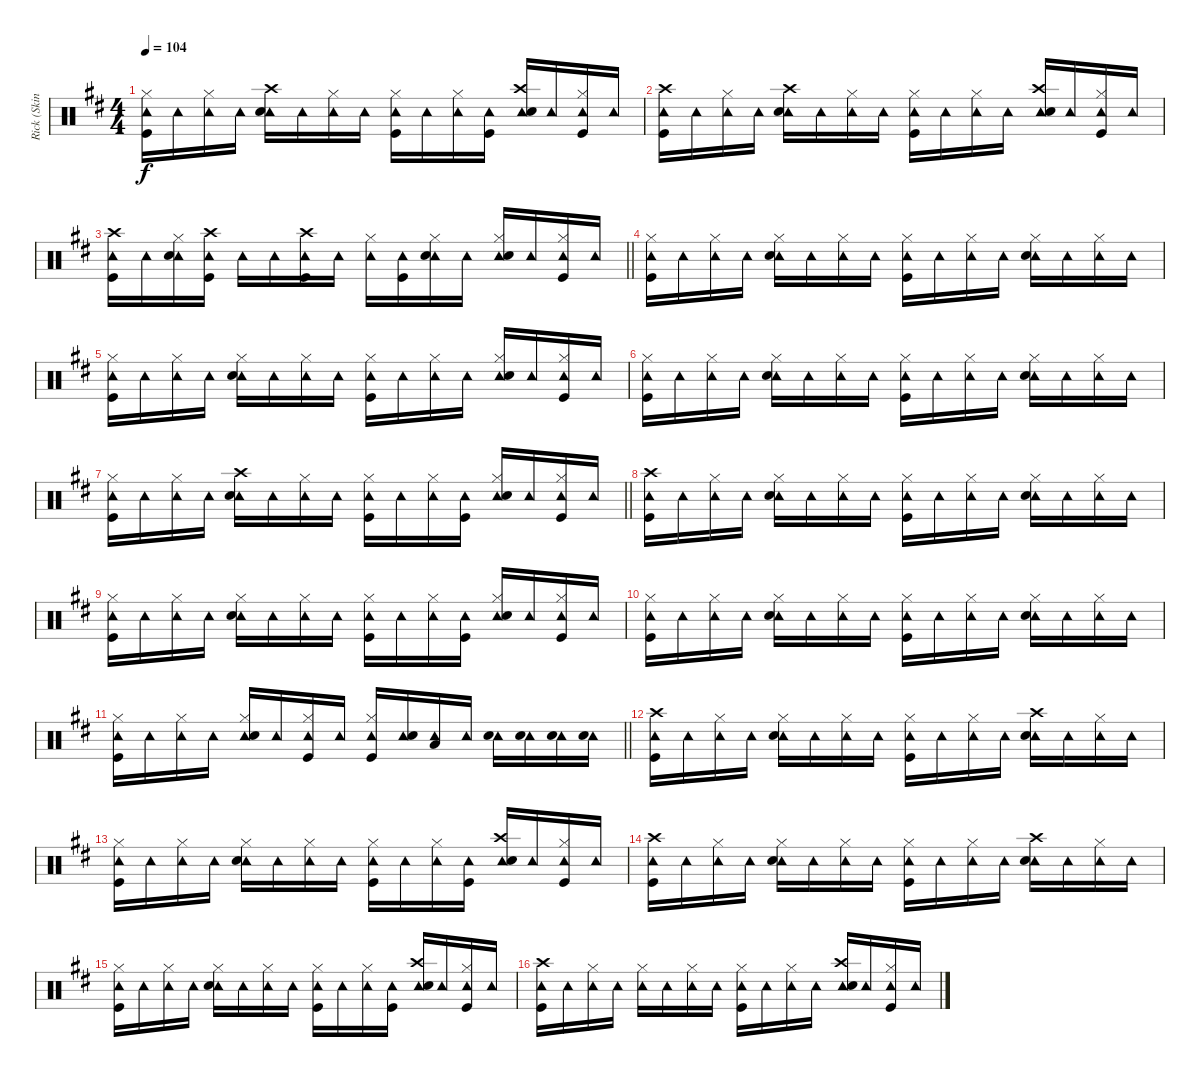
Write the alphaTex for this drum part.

\track ("Rick (Skins)" "Rick (Skin") {instrument percussion}
\staff {score}
\articulation defaults
\ts (4 4)
\tempo 104
\clef neutral
\ks d
("Tambourine (hit)" "Hi-Hat (closed)" "Kick (hit)").16{dy f} "Tambourine (hit)".16 ("Tambourine (hit)" "Hi-Hat (closed)").16 "Tambourine (hit)".16 ("Tambourine (hit)" "Crash high (hit)" "Snare (hit) 2").16 "Tambourine (hit)".16 ("Tambourine (hit)" "Hi-Hat (closed)").16 "Tambourine (hit)".16 ("Tambourine (hit)" "Hi-Hat (closed)" "Kick (hit)").16 "Tambourine (hit)".16 ("Tambourine (hit)" "Hi-Hat (closed)").16 ("Tambourine (hit)" "Kick (hit)").16 ("Tambourine (hit)" "Crash high (hit)" "Snare (hit) 2").16 "Tambourine (hit)".16 ("Tambourine (hit)" "Hi-Hat (closed)" "Kick (hit)").16 "Tambourine (hit)".16 |
("Tambourine (hit)" "Crash high (hit)" "Kick (hit)").16 "Tambourine (hit)".16 ("Tambourine (hit)" "Hi-Hat (closed)").16 "Tambourine (hit)".16 ("Tambourine (hit)" "Crash high (hit)" "Snare (hit) 2").16 "Tambourine (hit)".16 ("Tambourine (hit)" "Hi-Hat (closed)").16 "Tambourine (hit)".16 ("Tambourine (hit)" "Hi-Hat (closed)" "Kick (hit)").16 "Tambourine (hit)".16 ("Tambourine (hit)" "Hi-Hat (closed)").16 "Tambourine (hit)".16 ("Tambourine (hit)" "Crash high (hit)" "Snare (hit) 2").16 "Tambourine (hit)".16 ("Tambourine (hit)" "Hi-Hat (closed)" "Kick (hit)").16 "Tambourine (hit)".16 |
\barLineRight lightlight
("Tambourine (hit)" "Crash high (hit)" "Kick (hit)").16 "Tambourine (hit)".16 ("Tambourine (hit)" "Hi-Hat (closed)" "Snare (hit) 2").16 ("Tambourine (hit)" "Crash high (hit)" "Kick (hit)").16 "Tambourine (hit)".16 "Tambourine (hit)".16 ("Tambourine (hit)" "Crash high (hit)" "Kick (hit)").16 "Tambourine (hit)".16 ("Tambourine (hit)" "Hi-Hat (closed)").16 ("Tambourine (hit)" "Kick (hit)").16 ("Tambourine (hit)" "Hi-Hat (closed)" "Snare (hit) 2").16 "Tambourine (hit)".16 ("Tambourine (hit)" "Hi-Hat (closed)" "Snare (hit) 2").16 "Tambourine (hit)".16 ("Tambourine (hit)" "Hi-Hat (closed)" "Kick (hit)").16 "Tambourine (hit)".16 |
("Tambourine (hit)" "Hi-Hat (closed)" "Kick (hit)").16 "Tambourine (hit)".16 ("Tambourine (hit)" "Hi-Hat (closed)").16 "Tambourine (hit)".16 ("Tambourine (hit)" "Hi-Hat (closed)" "Snare (hit) 2").16 "Tambourine (hit)".16 ("Tambourine (hit)" "Hi-Hat (closed)").16 "Tambourine (hit)".16 ("Tambourine (hit)" "Hi-Hat (closed)" "Kick (hit)").16 "Tambourine (hit)".16 ("Tambourine (hit)" "Hi-Hat (closed)").16 "Tambourine (hit)".16 ("Tambourine (hit)" "Hi-Hat (closed)" "Snare (hit) 2").16 "Tambourine (hit)".16 ("Tambourine (hit)" "Hi-Hat (closed)").16 "Tambourine (hit)".16 |
("Tambourine (hit)" "Hi-Hat (closed)" "Kick (hit)").16 "Tambourine (hit)".16 ("Tambourine (hit)" "Hi-Hat (closed)").16 "Tambourine (hit)".16 ("Tambourine (hit)" "Hi-Hat (closed)" "Snare (hit) 2").16 "Tambourine (hit)".16 ("Tambourine (hit)" "Hi-Hat (closed)").16 "Tambourine (hit)".16 ("Tambourine (hit)" "Hi-Hat (closed)" "Kick (hit)").16 "Tambourine (hit)".16 ("Tambourine (hit)" "Hi-Hat (closed)").16 "Tambourine (hit)".16 ("Tambourine (hit)" "Hi-Hat (closed)" "Snare (hit) 2").16 "Tambourine (hit)".16 ("Tambourine (hit)" "Hi-Hat (closed)" "Kick (hit)").16 "Tambourine (hit)".16 |
("Tambourine (hit)" "Hi-Hat (closed)" "Kick (hit)").16 "Tambourine (hit)".16 ("Tambourine (hit)" "Hi-Hat (closed)").16 "Tambourine (hit)".16 ("Tambourine (hit)" "Hi-Hat (closed)" "Snare (hit) 2").16 "Tambourine (hit)".16 ("Tambourine (hit)" "Hi-Hat (closed)").16 "Tambourine (hit)".16 ("Tambourine (hit)" "Hi-Hat (closed)" "Kick (hit)").16 "Tambourine (hit)".16 ("Tambourine (hit)" "Hi-Hat (closed)").16 "Tambourine (hit)".16 ("Tambourine (hit)" "Hi-Hat (closed)" "Snare (hit) 2").16 "Tambourine (hit)".16 ("Tambourine (hit)" "Hi-Hat (closed)").16 "Tambourine (hit)".16 |
\barLineRight lightlight
("Tambourine (hit)" "Hi-Hat (closed)" "Kick (hit)").16 "Tambourine (hit)".16 ("Tambourine (hit)" "Hi-Hat (closed)").16 "Tambourine (hit)".16 ("Tambourine (hit)" "Crash high (hit)" "Snare (hit) 2").16 "Tambourine (hit)".16 ("Tambourine (hit)" "Hi-Hat (closed)").16 "Tambourine (hit)".16 ("Tambourine (hit)" "Hi-Hat (closed)" "Kick (hit)").16 "Tambourine (hit)".16 ("Tambourine (hit)" "Hi-Hat (closed)").16 ("Tambourine (hit)" "Kick (hit)").16 ("Tambourine (hit)" "Hi-Hat (closed)" "Snare (hit) 2").16 "Tambourine (hit)".16 ("Tambourine (hit)" "Hi-Hat (closed)" "Kick (hit)").16 "Tambourine (hit)".16 |
("Tambourine (hit)" "Crash high (hit)" "Kick (hit)").16 "Tambourine (hit)".16 ("Tambourine (hit)" "Hi-Hat (closed)").16 "Tambourine (hit)".16 ("Tambourine (hit)" "Hi-Hat (closed)" "Snare (hit) 2").16 "Tambourine (hit)".16 ("Tambourine (hit)" "Hi-Hat (closed)").16 "Tambourine (hit)".16 ("Tambourine (hit)" "Hi-Hat (closed)" "Kick (hit)").16 "Tambourine (hit)".16 ("Tambourine (hit)" "Hi-Hat (closed)").16 "Tambourine (hit)".16 ("Tambourine (hit)" "Hi-Hat (closed)" "Snare (hit) 2").16 "Tambourine (hit)".16 ("Tambourine (hit)" "Hi-Hat (closed)").16 "Tambourine (hit)".16 |
("Tambourine (hit)" "Hi-Hat (closed)" "Kick (hit)").16 "Tambourine (hit)".16 ("Tambourine (hit)" "Hi-Hat (closed)").16 "Tambourine (hit)".16 ("Tambourine (hit)" "Hi-Hat (closed)" "Snare (hit) 2").16 "Tambourine (hit)".16 ("Tambourine (hit)" "Hi-Hat (closed)").16 "Tambourine (hit)".16 ("Tambourine (hit)" "Hi-Hat (closed)" "Kick (hit)").16 "Tambourine (hit)".16 ("Tambourine (hit)" "Hi-Hat (closed)").16 ("Tambourine (hit)" "Kick (hit)").16 ("Tambourine (hit)" "Hi-Hat (closed)" "Snare (hit) 2").16 "Tambourine (hit)".16 ("Tambourine (hit)" "Hi-Hat (closed)" "Kick (hit)").16 "Tambourine (hit)".16 |
("Tambourine (hit)" "Hi-Hat (closed)" "Kick (hit)").16 "Tambourine (hit)".16 ("Tambourine (hit)" "Hi-Hat (closed)").16 "Tambourine (hit)".16 ("Tambourine (hit)" "Hi-Hat (closed)" "Snare (hit) 2").16 "Tambourine (hit)".16 ("Tambourine (hit)" "Hi-Hat (closed)").16 "Tambourine (hit)".16 ("Tambourine (hit)" "Hi-Hat (closed)" "Kick (hit)").16 "Tambourine (hit)".16 ("Tambourine (hit)" "Hi-Hat (closed)").16 "Tambourine (hit)".16 ("Tambourine (hit)" "Hi-Hat (closed)" "Snare (hit) 2").16 "Tambourine (hit)".16 ("Tambourine (hit)" "Hi-Hat (closed)").16 "Tambourine (hit)".16 |
\barLineRight lightlight
("Tambourine (hit)" "Hi-Hat (closed)" "Kick (hit)").16 "Tambourine (hit)".16 ("Tambourine (hit)" "Hi-Hat (closed)").16 "Tambourine (hit)".16 ("Tambourine (hit)" "Hi-Hat (closed)" "Snare (hit) 2").16 "Tambourine (hit)".16 ("Tambourine (hit)" "Hi-Hat (closed)" "Kick (hit)").16 "Tambourine (hit)".16 ("Tambourine (hit)" "Hi-Hat (closed)" "Kick (hit)").16 ("Tambourine (hit)" "Snare (hit) 2").16 ("Tambourine (hit)" "Low Tom (hit)").16 "Tambourine (hit)".16 ("Tambourine (hit)" "Snare (hit) 2").16 ("Tambourine (hit)" "Snare (hit) 2").16 ("Tambourine (hit)" "Snare (hit) 2").16 ("Tambourine (hit)" "Snare (hit) 2").16 |
("Tambourine (hit)" "Crash high (hit)" "Kick (hit)").16 "Tambourine (hit)".16 ("Tambourine (hit)" "Hi-Hat (closed)").16 "Tambourine (hit)".16 ("Tambourine (hit)" "Hi-Hat (closed)" "Snare (hit) 2").16 "Tambourine (hit)".16 ("Tambourine (hit)" "Hi-Hat (closed)").16 "Tambourine (hit)".16 ("Tambourine (hit)" "Hi-Hat (closed)" "Kick (hit)").16 "Tambourine (hit)".16 ("Tambourine (hit)" "Hi-Hat (closed)").16 "Tambourine (hit)".16 ("Tambourine (hit)" "Crash high (hit)" "Snare (hit) 2").16 "Tambourine (hit)".16 ("Tambourine (hit)" "Hi-Hat (closed)").16 "Tambourine (hit)".16 |
("Tambourine (hit)" "Hi-Hat (closed)" "Kick (hit)").16 "Tambourine (hit)".16 ("Tambourine (hit)" "Hi-Hat (closed)").16 "Tambourine (hit)".16 ("Tambourine (hit)" "Hi-Hat (closed)" "Snare (hit) 2").16 "Tambourine (hit)".16 ("Tambourine (hit)" "Hi-Hat (closed)").16 "Tambourine (hit)".16 ("Tambourine (hit)" "Hi-Hat (closed)" "Kick (hit)").16 "Tambourine (hit)".16 ("Tambourine (hit)" "Hi-Hat (closed)").16 ("Tambourine (hit)" "Kick (hit)").16 ("Tambourine (hit)" "Crash high (hit)" "Snare (hit) 2").16 "Tambourine (hit)".16 ("Tambourine (hit)" "Hi-Hat (closed)" "Kick (hit)").16 "Tambourine (hit)".16 |
("Tambourine (hit)" "Crash high (hit)" "Kick (hit)").16 "Tambourine (hit)".16 ("Tambourine (hit)" "Hi-Hat (closed)").16 "Tambourine (hit)".16 ("Tambourine (hit)" "Hi-Hat (closed)" "Snare (hit) 2").16 "Tambourine (hit)".16 ("Tambourine (hit)" "Hi-Hat (closed)").16 "Tambourine (hit)".16 ("Tambourine (hit)" "Hi-Hat (closed)" "Kick (hit)").16 "Tambourine (hit)".16 ("Tambourine (hit)" "Hi-Hat (closed)").16 "Tambourine (hit)".16 ("Tambourine (hit)" "Crash high (hit)" "Snare (hit) 2").16 "Tambourine (hit)".16 ("Tambourine (hit)" "Hi-Hat (closed)").16 "Tambourine (hit)".16 |
("Tambourine (hit)" "Hi-Hat (closed)" "Kick (hit)").16 "Tambourine (hit)".16 ("Tambourine (hit)" "Hi-Hat (closed)").16 "Tambourine (hit)".16 ("Tambourine (hit)" "Hi-Hat (closed)" "Snare (hit) 2").16 "Tambourine (hit)".16 ("Tambourine (hit)" "Hi-Hat (closed)").16 "Tambourine (hit)".16 ("Tambourine (hit)" "Hi-Hat (closed)" "Kick (hit)").16 "Tambourine (hit)".16 ("Tambourine (hit)" "Hi-Hat (closed)").16 ("Tambourine (hit)" "Kick (hit)").16 ("Tambourine (hit)" "Crash high (hit)" "Snare (hit) 2").16 "Tambourine (hit)".16 ("Tambourine (hit)" "Hi-Hat (closed)" "Kick (hit)").16 "Tambourine (hit)".16 |
("Tambourine (hit)" "Crash high (hit)" "Kick (hit)").16 "Tambourine (hit)".16 ("Tambourine (hit)" "Hi-Hat (closed)").16 "Tambourine (hit)".16 ("Tambourine (hit)" "Hi-Hat (closed)").16 "Tambourine (hit)".16 ("Tambourine (hit)" "Hi-Hat (closed)").16 "Tambourine (hit)".16 ("Tambourine (hit)" "Hi-Hat (closed)" "Kick (hit)").16 "Tambourine (hit)".16 ("Tambourine (hit)" "Hi-Hat (closed)").16 "Tambourine (hit)".16 ("Tambourine (hit)" "Crash high (hit)" "Snare (hit) 2").16 "Tambourine (hit)".16 ("Tambourine (hit)" "Hi-Hat (closed)" "Kick (hit)").16 "Tambourine (hit)".16
